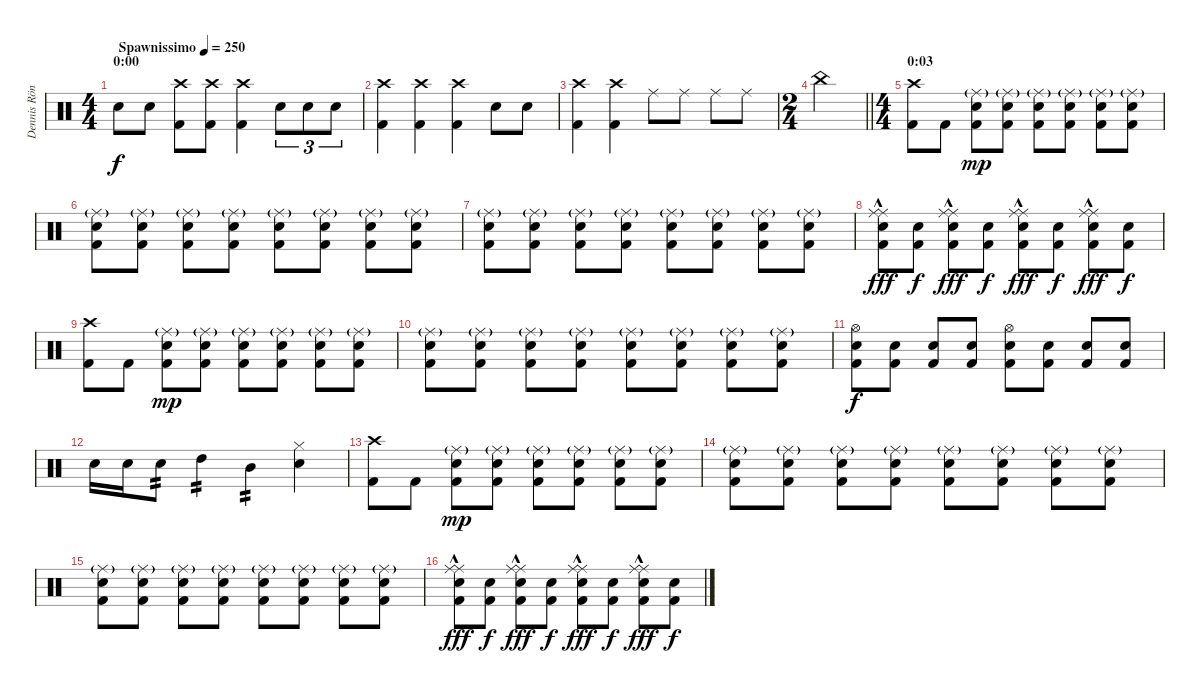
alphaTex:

\track ("Dennis Röndum" "Dennis Rön") {instrument percussion}
\staff {score}
\articulation defaults
\ts (4 4)
\section ("" "0:00")
\tempo (250 "Spawnissimo")
\clef neutral
\ks c "Snare (hit) 2".8{dy f} "Snare (hit) 2".8
("Crash high (hit)" "Kick (hit) 2").8 ("Crash high (hit)" "Kick (hit) 2").8 ("Crash high (hit)" "Kick (hit) 2").4 "Snare (hit) 2".8{tu (3 2)} "Snare (hit) 2".8{tu (3 2)} "Snare (hit) 2".8{tu (3 2)} |
("Crash high (hit)" "Kick (hit) 2").4 ("Crash high (hit)" "Kick (hit) 2").4 ("Crash high (hit)" "Kick (hit) 2").4 "Snare (hit) 2".8 "Snare (hit) 2".8 |
("Crash high (hit)" "Kick (hit) 2").4 ("Crash high (hit)" "Kick (hit) 2").4 "Ride (middle)".8 "Ride (middle)".8 "Ride (middle)".8 "Ride (middle)".8 |
\ts (2 4)
\barLineRight lightlight "China (hit)".2
|
\ts (4 4)
\section ("" "0:03")
("Crash high (hit)" "Kick (hit) 2").8 "Kick (hit) 2".8 ("Snare (hit) 2" "Ride (middle)"{g} "Kick (hit) 2").8{dy mp} ("Snare (hit) 2" "Ride (middle)"{g} "Kick (hit) 2").8 ("Snare (hit) 2" "Ride (middle)"{g} "Kick (hit) 2").8 ("Snare (hit) 2" "Ride (middle)"{g} "Kick (hit) 2").8 ("Snare (hit) 2" "Ride (middle)"{g} "Kick (hit) 2").8 ("Snare (hit) 2" "Ride (middle)"{g} "Kick (hit) 2").8 |
("Snare (hit) 2" "Ride (middle)"{g} "Kick (hit) 2").8 ("Snare (hit) 2" "Ride (middle)"{g} "Kick (hit) 2").8 ("Snare (hit) 2" "Ride (middle)"{g} "Kick (hit) 2").8 ("Snare (hit) 2" "Ride (middle)"{g} "Kick (hit) 2").8 ("Snare (hit) 2" "Ride (middle)"{g} "Kick (hit) 2").8 ("Snare (hit) 2" "Ride (middle)"{g} "Kick (hit) 2").8 ("Snare (hit) 2" "Ride (middle)"{g} "Kick (hit) 2").8 ("Snare (hit) 2" "Ride (middle)"{g} "Kick (hit) 2").8 |
("Snare (hit) 2" "Ride (middle)"{g} "Kick (hit) 2").8 ("Snare (hit) 2" "Ride (middle)"{g} "Kick (hit) 2").8 ("Snare (hit) 2" "Ride (middle)"{g} "Kick (hit) 2").8 ("Snare (hit) 2" "Ride (middle)"{g} "Kick (hit) 2").8 ("Snare (hit) 2" "Ride (middle)"{g} "Kick (hit) 2").8 ("Snare (hit) 2" "Ride (middle)"{g} "Kick (hit) 2").8 ("Snare (hit) 2" "Ride (middle)"{g} "Kick (hit) 2").8 ("Snare (hit) 2" "Ride (middle)"{g} "Kick (hit) 2").8 |
("Ride (middle)" "Snare (hit) 2" "Ride (middle)"{hac} "Kick (hit) 2").8{dy fff} ("Snare (hit) 2" "Kick (hit) 2").8{dy f} ("Ride (middle)" "Snare (hit) 2" "Ride (middle)"{hac} "Kick (hit) 2").8{dy fff} ("Snare (hit) 2" "Kick (hit) 2").8{dy f} ("Ride (middle)" "Snare (hit) 2" "Ride (middle)"{hac} "Kick (hit) 2").8{dy fff} ("Snare (hit) 2" "Kick (hit) 2").8{dy f} ("Ride (middle)" "Snare (hit) 2" "Ride (middle)"{hac} "Kick (hit) 2").8{dy fff} ("Snare (hit) 2" "Kick (hit) 2").8{dy f} |
("Crash high (hit)" "Kick (hit) 2").8 "Kick (hit) 2".8 ("Snare (hit) 2" "Ride (middle)"{g} "Kick (hit) 2").8{dy mp} ("Snare (hit) 2" "Ride (middle)"{g} "Kick (hit) 2").8 ("Snare (hit) 2" "Ride (middle)"{g} "Kick (hit) 2").8 ("Snare (hit) 2" "Ride (middle)"{g} "Kick (hit) 2").8 ("Snare (hit) 2" "Ride (middle)"{g} "Kick (hit) 2").8 ("Snare (hit) 2" "Ride (middle)"{g} "Kick (hit) 2").8 |
("Snare (hit) 2" "Ride (middle)"{g} "Kick (hit) 2").8 ("Snare (hit) 2" "Ride (middle)"{g} "Kick (hit) 2").8 ("Snare (hit) 2" "Ride (middle)"{g} "Kick (hit) 2").8 ("Snare (hit) 2" "Ride (middle)"{g} "Kick (hit) 2").8 ("Snare (hit) 2" "Ride (middle)"{g} "Kick (hit) 2").8 ("Snare (hit) 2" "Ride (middle)"{g} "Kick (hit) 2").8 ("Snare (hit) 2" "Ride (middle)"{g} "Kick (hit) 2").8 ("Snare (hit) 2" "Ride (middle)"{g} "Kick (hit) 2").8 |
("Snare (hit) 2" "Hi-Hat (open)" "Kick (hit) 2").8{dy f} ("Snare (hit) 2" "Kick (hit) 2").8 ("Snare (hit) 2" "Kick (hit) 2").8 ("Snare (hit) 2" "Kick (hit) 2").8 ("Snare (hit) 2" "Hi-Hat (open)" "Kick (hit) 2").8 ("Snare (hit) 2" "Kick (hit) 2").8 ("Snare (hit) 2" "Kick (hit) 2").8 ("Snare (hit) 2" "Kick (hit) 2").8 |
"Snare (hit) 2".16 "Snare (hit) 2".16 "Snare (hit) 2".8{tp 2} "High Tom (hit)".4{tp 2} "Mid Tom (hit)".4{tp 2} ("Hi-Hat (closed)" "Snare (hit) 2").4 |
("Crash high (hit)" "Kick (hit) 2").8 "Kick (hit) 2".8 ("Snare (hit) 2" "Ride (middle)"{g} "Kick (hit) 2").8{dy mp} ("Snare (hit) 2" "Ride (middle)"{g} "Kick (hit) 2").8 ("Snare (hit) 2" "Ride (middle)"{g} "Kick (hit) 2").8 ("Snare (hit) 2" "Ride (middle)"{g} "Kick (hit) 2").8 ("Snare (hit) 2" "Ride (middle)"{g} "Kick (hit) 2").8 ("Snare (hit) 2" "Ride (middle)"{g} "Kick (hit) 2").8 |
("Snare (hit) 2" "Ride (middle)"{g} "Kick (hit) 2").8 ("Snare (hit) 2" "Ride (middle)"{g} "Kick (hit) 2").8 ("Snare (hit) 2" "Ride (middle)"{g} "Kick (hit) 2").8 ("Snare (hit) 2" "Ride (middle)"{g} "Kick (hit) 2").8 ("Snare (hit) 2" "Ride (middle)"{g} "Kick (hit) 2").8 ("Snare (hit) 2" "Ride (middle)"{g} "Kick (hit) 2").8 ("Snare (hit) 2" "Ride (middle)"{g} "Kick (hit) 2").8 ("Snare (hit) 2" "Ride (middle)"{g} "Kick (hit) 2").8 |
("Snare (hit) 2" "Ride (middle)"{g} "Kick (hit) 2").8 ("Snare (hit) 2" "Ride (middle)"{g} "Kick (hit) 2").8 ("Snare (hit) 2" "Ride (middle)"{g} "Kick (hit) 2").8 ("Snare (hit) 2" "Ride (middle)"{g} "Kick (hit) 2").8 ("Snare (hit) 2" "Ride (middle)"{g} "Kick (hit) 2").8 ("Snare (hit) 2" "Ride (middle)"{g} "Kick (hit) 2").8 ("Snare (hit) 2" "Ride (middle)"{g} "Kick (hit) 2").8 ("Snare (hit) 2" "Ride (middle)"{g} "Kick (hit) 2").8 |
("Ride (middle)" "Snare (hit) 2" "Ride (middle)"{hac} "Kick (hit) 2").8{dy fff} ("Snare (hit) 2" "Kick (hit) 2").8{dy f} ("Ride (middle)" "Snare (hit) 2" "Ride (middle)"{hac} "Kick (hit) 2").8{dy fff} ("Snare (hit) 2" "Kick (hit) 2").8{dy f} ("Ride (middle)" "Snare (hit) 2" "Ride (middle)"{hac} "Kick (hit) 2").8{dy fff} ("Snare (hit) 2" "Kick (hit) 2").8{dy f} ("Ride (middle)" "Snare (hit) 2" "Ride (middle)"{hac} "Kick (hit) 2").8{dy fff} ("Snare (hit) 2" "Kick (hit) 2").8{dy f}
